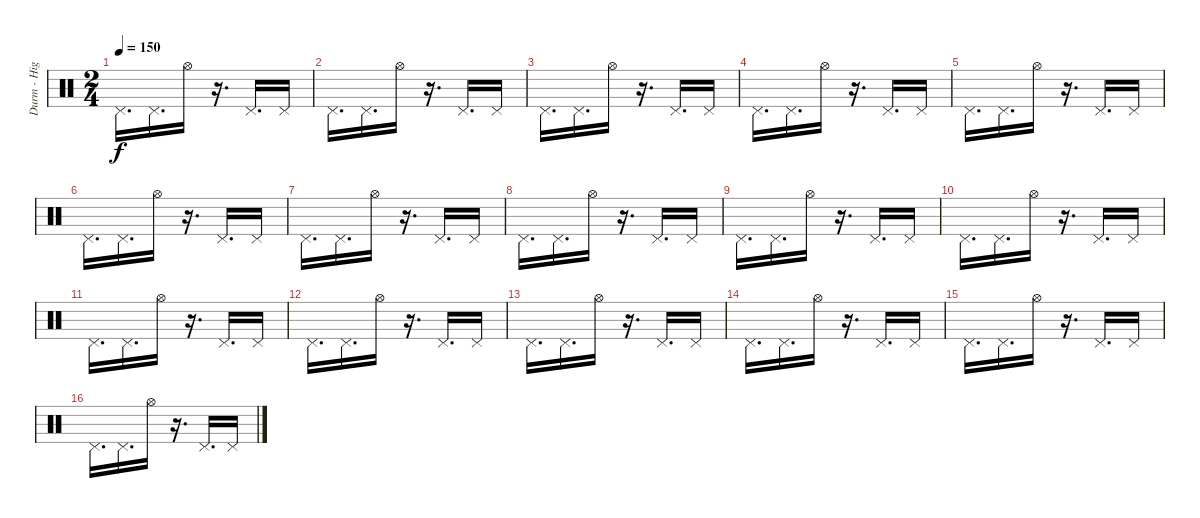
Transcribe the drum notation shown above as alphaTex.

\track ("Durm - High Hat" "Durm - Hig") {instrument percussion}
\staff {score}
\articulation defaults
\ts (2 4)
\tempo 150
\clef neutral
\ks c "Pedal Hi-Hat (hit)".16{d dy f} "Pedal Hi-Hat (hit)".16{d} "Hi-Hat (open)".16
r.16{d} "Pedal Hi-Hat (hit)".16{d} "Pedal Hi-Hat (hit)".16 |
"Pedal Hi-Hat (hit)".16{d} "Pedal Hi-Hat (hit)".16{d} "Hi-Hat (open)".16 r.16{d} "Pedal Hi-Hat (hit)".16{d} "Pedal Hi-Hat (hit)".16 |
"Pedal Hi-Hat (hit)".16{d} "Pedal Hi-Hat (hit)".16{d} "Hi-Hat (open)".16 r.16{d} "Pedal Hi-Hat (hit)".16{d} "Pedal Hi-Hat (hit)".16 |
"Pedal Hi-Hat (hit)".16{d} "Pedal Hi-Hat (hit)".16{d} "Hi-Hat (open)".16 r.16{d} "Pedal Hi-Hat (hit)".16{d} "Pedal Hi-Hat (hit)".16 |
"Pedal Hi-Hat (hit)".16{d} "Pedal Hi-Hat (hit)".16{d} "Hi-Hat (open)".16 r.16{d} "Pedal Hi-Hat (hit)".16{d} "Pedal Hi-Hat (hit)".16 |
"Pedal Hi-Hat (hit)".16{d} "Pedal Hi-Hat (hit)".16{d} "Hi-Hat (open)".16 r.16{d} "Pedal Hi-Hat (hit)".16{d} "Pedal Hi-Hat (hit)".16 |
"Pedal Hi-Hat (hit)".16{d} "Pedal Hi-Hat (hit)".16{d} "Hi-Hat (open)".16 r.16{d} "Pedal Hi-Hat (hit)".16{d} "Pedal Hi-Hat (hit)".16 |
"Pedal Hi-Hat (hit)".16{d} "Pedal Hi-Hat (hit)".16{d} "Hi-Hat (open)".16 r.16{d} "Pedal Hi-Hat (hit)".16{d} "Pedal Hi-Hat (hit)".16 |
"Pedal Hi-Hat (hit)".16{d} "Pedal Hi-Hat (hit)".16{d} "Hi-Hat (open)".16 r.16{d} "Pedal Hi-Hat (hit)".16{d} "Pedal Hi-Hat (hit)".16 |
"Pedal Hi-Hat (hit)".16{d} "Pedal Hi-Hat (hit)".16{d} "Hi-Hat (open)".16 r.16{d} "Pedal Hi-Hat (hit)".16{d} "Pedal Hi-Hat (hit)".16 |
"Pedal Hi-Hat (hit)".16{d} "Pedal Hi-Hat (hit)".16{d} "Hi-Hat (open)".16 r.16{d} "Pedal Hi-Hat (hit)".16{d} "Pedal Hi-Hat (hit)".16 |
"Pedal Hi-Hat (hit)".16{d} "Pedal Hi-Hat (hit)".16{d} "Hi-Hat (open)".16 r.16{d} "Pedal Hi-Hat (hit)".16{d} "Pedal Hi-Hat (hit)".16 |
"Pedal Hi-Hat (hit)".16{d} "Pedal Hi-Hat (hit)".16{d} "Hi-Hat (open)".16 r.16{d} "Pedal Hi-Hat (hit)".16{d} "Pedal Hi-Hat (hit)".16 |
"Pedal Hi-Hat (hit)".16{d} "Pedal Hi-Hat (hit)".16{d} "Hi-Hat (open)".16 r.16{d} "Pedal Hi-Hat (hit)".16{d} "Pedal Hi-Hat (hit)".16 |
"Pedal Hi-Hat (hit)".16{d} "Pedal Hi-Hat (hit)".16{d} "Hi-Hat (open)".16 r.16{d} "Pedal Hi-Hat (hit)".16{d} "Pedal Hi-Hat (hit)".16 |
"Pedal Hi-Hat (hit)".16{d} "Pedal Hi-Hat (hit)".16{d} "Hi-Hat (open)".16 r.16{d} "Pedal Hi-Hat (hit)".16{d} "Pedal Hi-Hat (hit)".16
